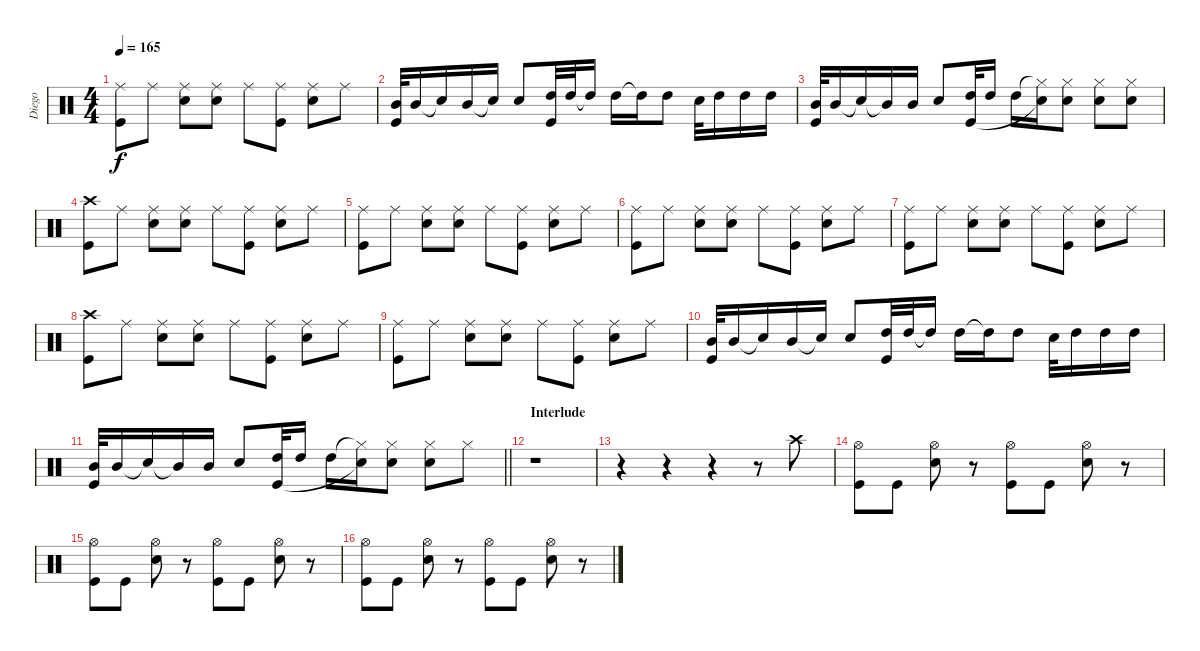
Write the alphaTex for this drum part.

\track ("Diego" "Diego") {instrument percussion}
\staff {score}
\articulation defaults
\ts (4 4)
\tempo 165
\clef neutral
\ks c
("Ride (middle)" "Kick (hit)").8{dy f} "Ride (middle)".8 ("Ride (middle)" "Snare (hit) 2").8 ("Ride (middle)" "Snare (hit) 2").8 "Ride (middle)".8 ("Ride (middle)" "Kick (hit)").8 ("Ride (middle)" "Snare (hit) 2").8 "Ride (middle)".8 |
("Mid Tom (hit)" "Kick (hit)").32 "Mid Tom (hit)".16 "Snare (hit)"{t}.16 "Mid Tom (hit)".16 "Snare (hit)"{t}.16 "Snare (hit) 2".8 ("High Tom (hit)" "Kick (hit)").32 "High Tom (hit)".32 "High Tom (hit)"{t}.16 "High Tom (hit)".16 "High Tom (hit)"{t}.16 "High Tom (hit)".8 "Snare (hit) 2".32 "High Tom (hit)".16 "High Tom (hit)".16 "High Tom (hit)".16 |
("Mid Tom (hit)" "Kick (hit)").32 "Mid Tom (hit)".16 "Snare (hit)"{t}.16 "Mid Tom (hit)"{t}.16 "Mid Tom (hit)".16 "Snare (hit) 2".8 ("High Tom (hit)" "Kick (hit)").32 "High Tom (hit)".16 "High Tom (hit)".16 ("Hi-Hat (closed)"{t} "Snare (hit) 2"{t}).16 ("Hi-Hat (closed)" "Snare (hit) 2").8 ("Hi-Hat (closed)" "Snare (hit) 2").8 ("Hi-Hat (closed)" "Snare (hit) 2").8 |
("Crash high (hit)" "Kick (hit)").8 "Ride (middle)".8 ("Ride (middle)" "Snare (hit) 2").8 ("Ride (middle)" "Snare (hit) 2").8 "Ride (middle)".8 ("Ride (middle)" "Kick (hit)").8 ("Ride (middle)" "Snare (hit) 2").8 "Ride (middle)".8 |
("Ride (middle)" "Kick (hit)").8 "Ride (middle)".8 ("Ride (middle)" "Snare (hit) 2").8 ("Ride (middle)" "Snare (hit) 2").8 "Ride (middle)".8 ("Ride (middle)" "Kick (hit)").8 ("Ride (middle)" "Snare (hit) 2").8 "Ride (middle)".8 |
("Ride (middle)" "Kick (hit)").8 "Ride (middle)".8 ("Ride (middle)" "Snare (hit) 2").8 ("Ride (middle)" "Snare (hit) 2").8 "Ride (middle)".8 ("Ride (middle)" "Kick (hit)").8 ("Ride (middle)" "Snare (hit) 2").8 "Ride (middle)".8 |
("Ride (middle)" "Kick (hit)").8 "Ride (middle)".8 ("Ride (middle)" "Snare (hit) 2").8 ("Ride (middle)" "Snare (hit) 2").8 "Ride (middle)".8 ("Ride (middle)" "Kick (hit)").8 ("Ride (middle)" "Snare (hit) 2").8 "Ride (middle)".8 |
("Crash high (hit)" "Kick (hit)").8 "Ride (middle)".8 ("Ride (middle)" "Snare (hit) 2").8 ("Ride (middle)" "Snare (hit) 2").8 "Ride (middle)".8 ("Ride (middle)" "Kick (hit)").8 ("Ride (middle)" "Snare (hit) 2").8 "Ride (middle)".8 |
("Ride (middle)" "Kick (hit)").8 "Ride (middle)".8 ("Ride (middle)" "Snare (hit) 2").8 ("Ride (middle)" "Snare (hit) 2").8 "Ride (middle)".8 ("Ride (middle)" "Kick (hit)").8 ("Ride (middle)" "Snare (hit) 2").8 "Ride (middle)".8 |
("Mid Tom (hit)" "Kick (hit)").32 "Mid Tom (hit)".16 "Snare (hit)"{t}.16 "Mid Tom (hit)".16 "Snare (hit)"{t}.16 "Snare (hit) 2".8 ("High Tom (hit)" "Kick (hit)").32 "High Tom (hit)".32 "High Tom (hit)"{t}.16 "High Tom (hit)".16 "High Tom (hit)"{t}.16 "High Tom (hit)".8 "Snare (hit) 2".32 "High Tom (hit)".16 "High Tom (hit)".16 "High Tom (hit)".16 |
\barLineRight lightlight
("Mid Tom (hit)" "Kick (hit)").32 "Mid Tom (hit)".16 "Snare (hit)"{t}.16 "Mid Tom (hit)"{t}.16 "Mid Tom (hit)".16 "Snare (hit) 2".8 ("High Tom (hit)" "Kick (hit)").32 "High Tom (hit)".16 "High Tom (hit)".16 ("Hi-Hat (closed)"{t} "Snare (hit) 2"{t}).16 ("Hi-Hat (closed)" "Snare (hit) 2").8 ("Hi-Hat (closed)" "Snare (hit) 2").8 "Hi-Hat (closed)".8 |
\section ("" "Interlude")
r.1 |
r.4 r.4 r.4 r.8 "Crash high (hit)".8 |
("Hi-Hat (open)" "Kick (hit)").8 "Kick (hit)".8 ("Hi-Hat (open)" "Snare (hit) 2").8 r.8 ("Hi-Hat (open)" "Kick (hit)").8 "Kick (hit)".8 ("Hi-Hat (open)" "Snare (hit) 2").8 r.8 |
("Hi-Hat (open)" "Kick (hit)").8 "Kick (hit)".8 ("Hi-Hat (open)" "Snare (hit) 2").8 r.8 ("Hi-Hat (open)" "Kick (hit)").8 "Kick (hit)".8 ("Hi-Hat (open)" "Snare (hit) 2").8 r.8 |
("Hi-Hat (open)" "Kick (hit)").8 "Kick (hit)".8 ("Hi-Hat (open)" "Snare (hit) 2").8 r.8 ("Hi-Hat (open)" "Kick (hit)").8 "Kick (hit)".8 ("Hi-Hat (open)" "Snare (hit) 2").8 r.8
